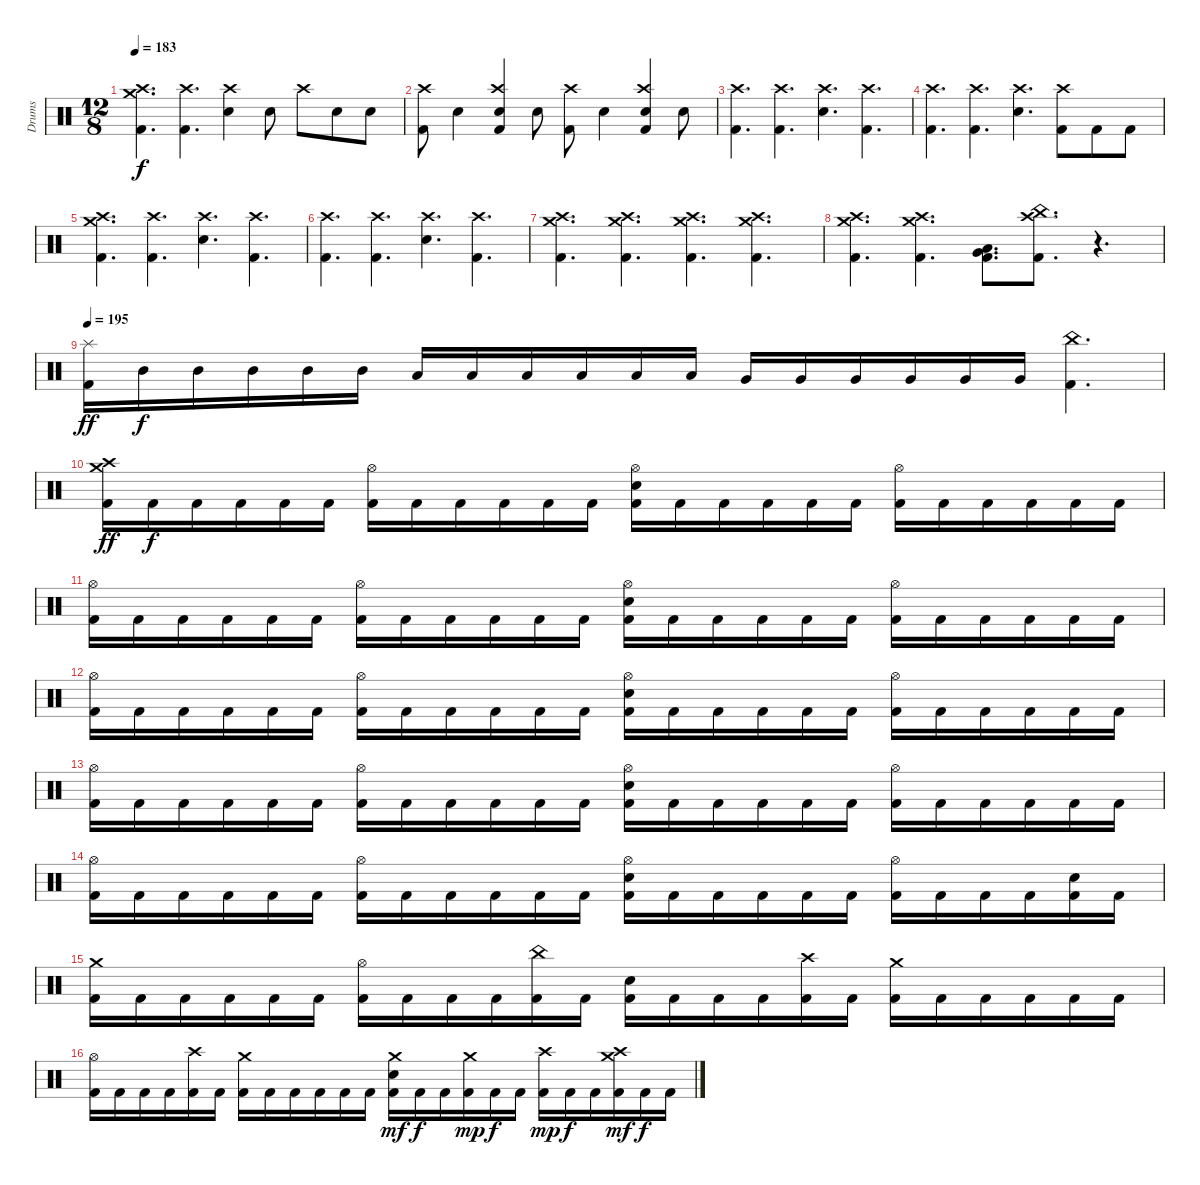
\track ("Drums" "Drums") {instrument percussion}
\staff {score}
\articulation defaults
\ts (12 8)
\tempo 183
\clef neutral
\ks c
("Kick (hit) 2" "Crash high (hit)" "Crash medium (hit)").4{d dy f} ("Kick (hit) 2" "Crash high (hit)").4{d} ("Electric Snare (hit)" "Crash high (hit)").4 "Electric Snare (hit)".8 "Crash high (hit)".8 "Electric Snare (hit)".8 "Electric Snare (hit)".8 |
("Kick (hit) 2" "Crash high (hit)").8 "Electric Snare (hit)".4 ("Kick (hit) 2" "Electric Snare (hit)" "Crash high (hit)").4 "Electric Snare (hit)".8 ("Kick (hit) 2" "Crash high (hit)").8 "Electric Snare (hit)".4 ("Kick (hit) 2" "Electric Snare (hit)" "Crash high (hit)").4 "Electric Snare (hit)".8 |
("Kick (hit) 2" "Crash high (hit)").4{d} ("Kick (hit) 2" "Crash high (hit)").4{d} ("Electric Snare (hit)" "Crash high (hit)").4{d} ("Kick (hit) 2" "Crash high (hit)").4{d} |
("Kick (hit) 2" "Crash high (hit)").4{d} ("Kick (hit) 2" "Crash high (hit)").4{d} ("Electric Snare (hit)" "Crash high (hit)").4{d} ("Kick (hit) 2" "Crash high (hit)").8 "Kick (hit) 2".8 "Kick (hit) 2".8 |
("Kick (hit) 2" "Crash high (hit)" "Crash medium (hit)").4{d} ("Kick (hit) 2" "Crash high (hit)").4{d} ("Electric Snare (hit)" "Crash high (hit)").4{d} ("Kick (hit) 2" "Crash high (hit)").4{d} |
("Kick (hit) 2" "Crash high (hit)").4{d} ("Kick (hit) 2" "Crash high (hit)").4{d} ("Electric Snare (hit)" "Crash high (hit)").4{d} ("Kick (hit) 2" "Crash high (hit)").4{d} |
("Kick (hit) 2" "Crash high (hit)" "Crash medium (hit)").4{d} ("Kick (hit) 2" "Crash high (hit)" "Crash medium (hit)").4{d} ("Kick (hit) 2" "Crash high (hit)" "Crash medium (hit)").4{d} ("Kick (hit) 2" "Crash high (hit)" "Crash medium (hit)").4{d} |
("Kick (hit) 2" "Crash high (hit)" "Crash medium (hit)").4{d} ("Kick (hit) 2" "Crash high (hit)" "Crash medium (hit)").4{d} ("Kick (hit) 2" "Very Low Tom (hit)" "Low Tom (hit)").8{d} ("Kick (hit) 2" "Crash high (hit)" "China (hit)").8{d} r.4{d} |
\tempo 195
("Kick (hit) 2" "Splash (hit)").16{dy ff} "Mid Tom (hit)".16{dy f} "Mid Tom (hit)".16 "Mid Tom (hit)".16 "Mid Tom (hit)".16 "Mid Tom (hit)".16 "Low Tom (hit)".16 "Low Tom (hit)".16 "Low Tom (hit)".16 "Low Tom (hit)".16 "Low Tom (hit)".16 "Low Tom (hit)".16 "Very Low Tom (hit)".16 "Very Low Tom (hit)".16 "Very Low Tom (hit)".16 "Very Low Tom (hit)".16 "Very Low Tom (hit)".16 "Very Low Tom (hit)".16 ("Kick (hit) 2" "China (hit)").4{d} |
("Kick (hit) 2" "Crash high (hit)" "Crash medium (hit)").16{dy ff} "Kick (hit) 2".16{dy f} "Kick (hit) 2".16 "Kick (hit) 2".16 "Kick (hit) 2".16 "Kick (hit) 2".16 ("Kick (hit) 2" "Hi-Hat (open)").16 "Kick (hit) 2".16 "Kick (hit) 2".16 "Kick (hit) 2".16 "Kick (hit) 2".16 "Kick (hit) 2".16 ("Kick (hit) 2" "Electric Snare (hit)" "Hi-Hat (open)").16 "Kick (hit) 2".16 "Kick (hit) 2".16 "Kick (hit) 2".16 "Kick (hit) 2".16 "Kick (hit) 2".16 ("Kick (hit) 2" "Hi-Hat (open)").16 "Kick (hit) 2".16 "Kick (hit) 2".16 "Kick (hit) 2".16 "Kick (hit) 2".16 "Kick (hit) 2".16 |
("Kick (hit) 2" "Hi-Hat (open)").16 "Kick (hit) 2".16 "Kick (hit) 2".16 "Kick (hit) 2".16 "Kick (hit) 2".16 "Kick (hit) 2".16 ("Kick (hit) 2" "Hi-Hat (open)").16 "Kick (hit) 2".16 "Kick (hit) 2".16 "Kick (hit) 2".16 "Kick (hit) 2".16 "Kick (hit) 2".16 ("Kick (hit) 2" "Electric Snare (hit)" "Hi-Hat (open)").16 "Kick (hit) 2".16 "Kick (hit) 2".16 "Kick (hit) 2".16 "Kick (hit) 2".16 "Kick (hit) 2".16 ("Kick (hit) 2" "Hi-Hat (open)").16 "Kick (hit) 2".16 "Kick (hit) 2".16 "Kick (hit) 2".16 "Kick (hit) 2".16 "Kick (hit) 2".16 |
("Kick (hit) 2" "Hi-Hat (open)").16 "Kick (hit) 2".16 "Kick (hit) 2".16 "Kick (hit) 2".16 "Kick (hit) 2".16 "Kick (hit) 2".16 ("Kick (hit) 2" "Hi-Hat (open)").16 "Kick (hit) 2".16 "Kick (hit) 2".16 "Kick (hit) 2".16 "Kick (hit) 2".16 "Kick (hit) 2".16 ("Kick (hit) 2" "Electric Snare (hit)" "Hi-Hat (open)").16 "Kick (hit) 2".16 "Kick (hit) 2".16 "Kick (hit) 2".16 "Kick (hit) 2".16 "Kick (hit) 2".16 ("Kick (hit) 2" "Hi-Hat (open)").16 "Kick (hit) 2".16 "Kick (hit) 2".16 "Kick (hit) 2".16 "Kick (hit) 2".16 "Kick (hit) 2".16 |
("Kick (hit) 2" "Hi-Hat (open)").16 "Kick (hit) 2".16 "Kick (hit) 2".16 "Kick (hit) 2".16 "Kick (hit) 2".16 "Kick (hit) 2".16 ("Kick (hit) 2" "Hi-Hat (open)").16 "Kick (hit) 2".16 "Kick (hit) 2".16 "Kick (hit) 2".16 "Kick (hit) 2".16 "Kick (hit) 2".16 ("Kick (hit) 2" "Electric Snare (hit)" "Hi-Hat (open)").16 "Kick (hit) 2".16 "Kick (hit) 2".16 "Kick (hit) 2".16 "Kick (hit) 2".16 "Kick (hit) 2".16 ("Kick (hit) 2" "Hi-Hat (open)").16 "Kick (hit) 2".16 "Kick (hit) 2".16 "Kick (hit) 2".16 "Kick (hit) 2".16 "Kick (hit) 2".16 |
("Kick (hit) 2" "Hi-Hat (open)").16 "Kick (hit) 2".16 "Kick (hit) 2".16 "Kick (hit) 2".16 "Kick (hit) 2".16 "Kick (hit) 2".16 ("Kick (hit) 2" "Hi-Hat (open)").16 "Kick (hit) 2".16 "Kick (hit) 2".16 "Kick (hit) 2".16 "Kick (hit) 2".16 "Kick (hit) 2".16 ("Kick (hit) 2" "Electric Snare (hit)" "Hi-Hat (open)").16 "Kick (hit) 2".16 "Kick (hit) 2".16 "Kick (hit) 2".16 "Kick (hit) 2".16 "Kick (hit) 2".16 ("Kick (hit) 2" "Hi-Hat (open)").16 "Kick (hit) 2".16 "Kick (hit) 2".16 "Kick (hit) 2".16 ("Kick (hit) 2" "Electric Snare (hit)").16 "Kick (hit) 2".16 |
("Kick (hit) 2" "Crash medium (hit)").16 "Kick (hit) 2".16 "Kick (hit) 2".16 "Kick (hit) 2".16 "Kick (hit) 2".16 "Kick (hit) 2".16 ("Kick (hit) 2" "Hi-Hat (open)").16 "Kick (hit) 2".16 "Kick (hit) 2".16 "Kick (hit) 2".16 ("Kick (hit) 2" "China (hit)").16 "Kick (hit) 2".16 ("Kick (hit) 2" "Electric Snare (hit)").16 "Kick (hit) 2".16 "Kick (hit) 2".16 "Kick (hit) 2".16 ("Kick (hit) 2" "Crash high (hit)").16 "Kick (hit) 2".16 ("Kick (hit) 2" "Crash medium (hit)").16 "Kick (hit) 2".16 "Kick (hit) 2".16 "Kick (hit) 2".16 "Kick (hit) 2".16 "Kick (hit) 2".16 |
("Kick (hit) 2" "Hi-Hat (open)").16 "Kick (hit) 2".16 "Kick (hit) 2".16 "Kick (hit) 2".16 ("Kick (hit) 2" "Crash high (hit)").16 "Kick (hit) 2".16 ("Kick (hit) 2" "Crash medium (hit)").16 "Kick (hit) 2".16 "Kick (hit) 2".16 "Kick (hit) 2".16 "Kick (hit) 2".16 "Kick (hit) 2".16 ("Kick (hit) 2" "Electric Snare (hit)" "Crash medium (hit)").16{dy mf} "Kick (hit) 2".16{dy f} "Kick (hit) 2".16 ("Kick (hit) 2" "Crash medium (hit)").16{dy mp} "Kick (hit) 2".16{dy f} "Kick (hit) 2".16 ("Kick (hit) 2" "Crash high (hit)").16{dy mp} "Kick (hit) 2".16{dy f} "Kick (hit) 2".16 ("Kick (hit) 2" "Crash high (hit)" "Crash medium (hit)").16{dy mf} "Kick (hit) 2".16{dy f} "Kick (hit) 2".16
